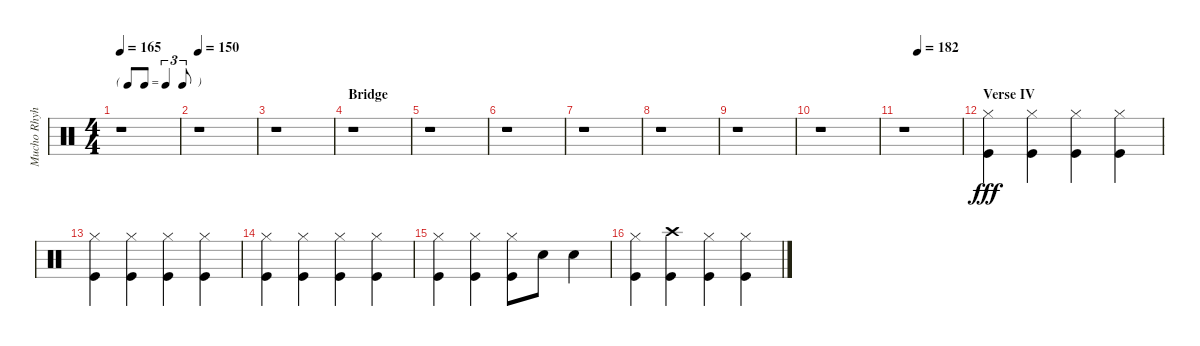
\track ("Mucho Rhyhtm" "Mucho Rhyh") {instrument percussion}
\staff {score}
\articulation defaults
\ts (4 4)
\tf triplet8th
\tempo 165
\clef neutral
\ks c
r.1{dy fff} |
\tempo 150
r.1 |
r.1 |
\section ("" "Bridge")
r.1 |
r.1 |
r.1 |
r.1 |
r.1 |
r.1 |
r.1 |
\tempo (182 0.25)
r.1 |
\section ("" "Verse IV")
("Hi-Hat (closed)" "Kick (hit)").4 ("Hi-Hat (closed)" "Kick (hit)").4 ("Hi-Hat (closed)" "Kick (hit)").4 ("Hi-Hat (closed)" "Kick (hit)").4 |
("Hi-Hat (closed)" "Kick (hit)").4 ("Hi-Hat (closed)" "Kick (hit)").4 ("Hi-Hat (closed)" "Kick (hit)").4 ("Hi-Hat (closed)" "Kick (hit)").4 |
("Hi-Hat (closed)" "Kick (hit)").4 ("Hi-Hat (closed)" "Kick (hit)").4 ("Hi-Hat (closed)" "Kick (hit)").4 ("Hi-Hat (closed)" "Kick (hit)").4 |
("Hi-Hat (closed)" "Kick (hit)").4 ("Hi-Hat (closed)" "Kick (hit)").4 ("Hi-Hat (closed)" "Kick (hit)").8 "Snare (hit) 2".8 "Snare (hit) 2".4 |
("Hi-Hat (closed)" "Kick (hit)").4 ("Crash high (hit)" "Kick (hit)").4 ("Hi-Hat (closed)" "Kick (hit)").4 ("Hi-Hat (closed)" "Kick (hit)").4
